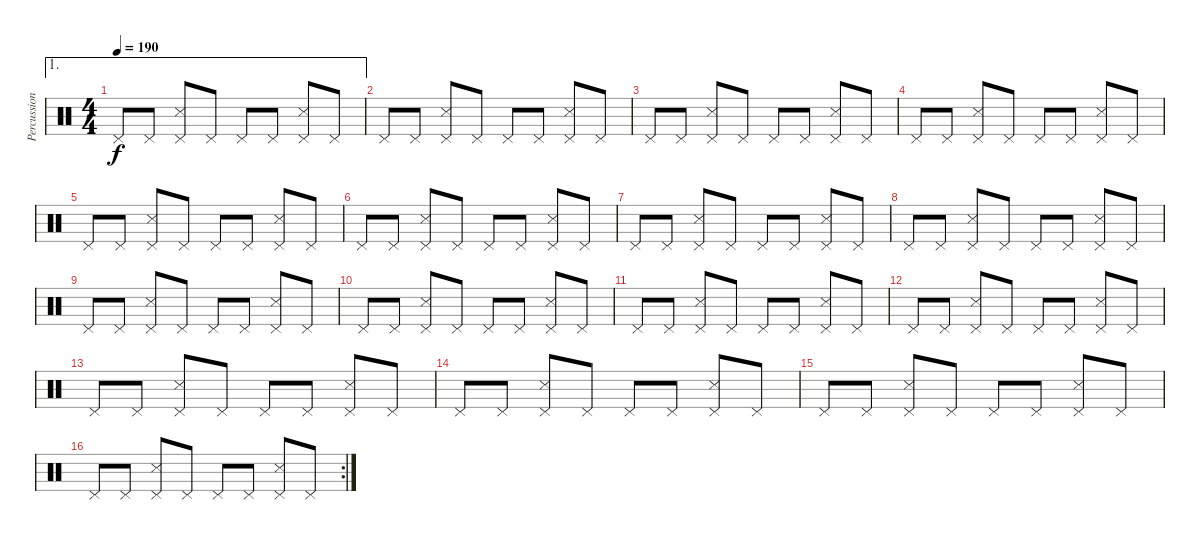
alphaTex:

\track ("Percussions" "Percussion") {instrument percussion}
\staff {score}
\articulation defaults
\ae 1
\ts (4 4)
\tempo 190
\clef neutral
\ks c "Pedal Hi-Hat (hit)".8{dy f} "Pedal Hi-Hat (hit)".8
("Pedal Hi-Hat (hit)" "Snare (side stick) 3").8 "Pedal Hi-Hat (hit)".8 "Pedal Hi-Hat (hit)".8 "Pedal Hi-Hat (hit)".8 ("Pedal Hi-Hat (hit)" "Snare (side stick) 3").8 "Pedal Hi-Hat (hit)".8 |
"Pedal Hi-Hat (hit)".8 "Pedal Hi-Hat (hit)".8 ("Pedal Hi-Hat (hit)" "Snare (side stick) 3").8 "Pedal Hi-Hat (hit)".8 "Pedal Hi-Hat (hit)".8 "Pedal Hi-Hat (hit)".8 ("Pedal Hi-Hat (hit)" "Snare (side stick) 3").8 "Pedal Hi-Hat (hit)".8 |
"Pedal Hi-Hat (hit)".8 "Pedal Hi-Hat (hit)".8 ("Pedal Hi-Hat (hit)" "Snare (side stick) 3").8 "Pedal Hi-Hat (hit)".8 "Pedal Hi-Hat (hit)".8 "Pedal Hi-Hat (hit)".8 ("Pedal Hi-Hat (hit)" "Snare (side stick) 3").8 "Pedal Hi-Hat (hit)".8 |
"Pedal Hi-Hat (hit)".8 "Pedal Hi-Hat (hit)".8 ("Pedal Hi-Hat (hit)" "Snare (side stick) 3").8 "Pedal Hi-Hat (hit)".8 "Pedal Hi-Hat (hit)".8 "Pedal Hi-Hat (hit)".8 ("Pedal Hi-Hat (hit)" "Snare (side stick) 3").8 "Pedal Hi-Hat (hit)".8 |
"Pedal Hi-Hat (hit)".8 "Pedal Hi-Hat (hit)".8 ("Pedal Hi-Hat (hit)" "Snare (side stick) 3").8 "Pedal Hi-Hat (hit)".8 "Pedal Hi-Hat (hit)".8 "Pedal Hi-Hat (hit)".8 ("Pedal Hi-Hat (hit)" "Snare (side stick) 3").8 "Pedal Hi-Hat (hit)".8 |
"Pedal Hi-Hat (hit)".8 "Pedal Hi-Hat (hit)".8 ("Pedal Hi-Hat (hit)" "Snare (side stick) 3").8 "Pedal Hi-Hat (hit)".8 "Pedal Hi-Hat (hit)".8 "Pedal Hi-Hat (hit)".8 ("Pedal Hi-Hat (hit)" "Snare (side stick) 3").8 "Pedal Hi-Hat (hit)".8 |
"Pedal Hi-Hat (hit)".8 "Pedal Hi-Hat (hit)".8 ("Pedal Hi-Hat (hit)" "Snare (side stick) 3").8 "Pedal Hi-Hat (hit)".8 "Pedal Hi-Hat (hit)".8 "Pedal Hi-Hat (hit)".8 ("Pedal Hi-Hat (hit)" "Snare (side stick) 3").8 "Pedal Hi-Hat (hit)".8 |
"Pedal Hi-Hat (hit)".8 "Pedal Hi-Hat (hit)".8 ("Pedal Hi-Hat (hit)" "Snare (side stick) 3").8 "Pedal Hi-Hat (hit)".8 "Pedal Hi-Hat (hit)".8 "Pedal Hi-Hat (hit)".8 ("Pedal Hi-Hat (hit)" "Snare (side stick) 3").8 "Pedal Hi-Hat (hit)".8 |
"Pedal Hi-Hat (hit)".8 "Pedal Hi-Hat (hit)".8 ("Pedal Hi-Hat (hit)" "Snare (side stick) 3").8 "Pedal Hi-Hat (hit)".8 "Pedal Hi-Hat (hit)".8 "Pedal Hi-Hat (hit)".8 ("Pedal Hi-Hat (hit)" "Snare (side stick) 3").8 "Pedal Hi-Hat (hit)".8 |
"Pedal Hi-Hat (hit)".8 "Pedal Hi-Hat (hit)".8 ("Pedal Hi-Hat (hit)" "Snare (side stick) 3").8 "Pedal Hi-Hat (hit)".8 "Pedal Hi-Hat (hit)".8 "Pedal Hi-Hat (hit)".8 ("Pedal Hi-Hat (hit)" "Snare (side stick) 3").8 "Pedal Hi-Hat (hit)".8 |
"Pedal Hi-Hat (hit)".8 "Pedal Hi-Hat (hit)".8 ("Pedal Hi-Hat (hit)" "Snare (side stick) 3").8 "Pedal Hi-Hat (hit)".8 "Pedal Hi-Hat (hit)".8 "Pedal Hi-Hat (hit)".8 ("Pedal Hi-Hat (hit)" "Snare (side stick) 3").8 "Pedal Hi-Hat (hit)".8 |
"Pedal Hi-Hat (hit)".8 "Pedal Hi-Hat (hit)".8 ("Pedal Hi-Hat (hit)" "Snare (side stick) 3").8 "Pedal Hi-Hat (hit)".8 "Pedal Hi-Hat (hit)".8 "Pedal Hi-Hat (hit)".8 ("Pedal Hi-Hat (hit)" "Snare (side stick) 3").8 "Pedal Hi-Hat (hit)".8 |
"Pedal Hi-Hat (hit)".8 "Pedal Hi-Hat (hit)".8 ("Pedal Hi-Hat (hit)" "Snare (side stick) 3").8 "Pedal Hi-Hat (hit)".8 "Pedal Hi-Hat (hit)".8 "Pedal Hi-Hat (hit)".8 ("Pedal Hi-Hat (hit)" "Snare (side stick) 3").8 "Pedal Hi-Hat (hit)".8 |
"Pedal Hi-Hat (hit)".8 "Pedal Hi-Hat (hit)".8 ("Pedal Hi-Hat (hit)" "Snare (side stick) 3").8 "Pedal Hi-Hat (hit)".8 "Pedal Hi-Hat (hit)".8 "Pedal Hi-Hat (hit)".8 ("Pedal Hi-Hat (hit)" "Snare (side stick) 3").8 "Pedal Hi-Hat (hit)".8 |
"Pedal Hi-Hat (hit)".8 "Pedal Hi-Hat (hit)".8 ("Pedal Hi-Hat (hit)" "Snare (side stick) 3").8 "Pedal Hi-Hat (hit)".8 "Pedal Hi-Hat (hit)".8 "Pedal Hi-Hat (hit)".8 ("Pedal Hi-Hat (hit)" "Snare (side stick) 3").8 "Pedal Hi-Hat (hit)".8 |
\rc 2 "Pedal Hi-Hat (hit)".8 "Pedal Hi-Hat (hit)".8
("Pedal Hi-Hat (hit)" "Snare (side stick) 3").8 "Pedal Hi-Hat (hit)".8 "Pedal Hi-Hat (hit)".8 "Pedal Hi-Hat (hit)".8 ("Pedal Hi-Hat (hit)" "Snare (side stick) 3").8 "Pedal Hi-Hat (hit)".8
